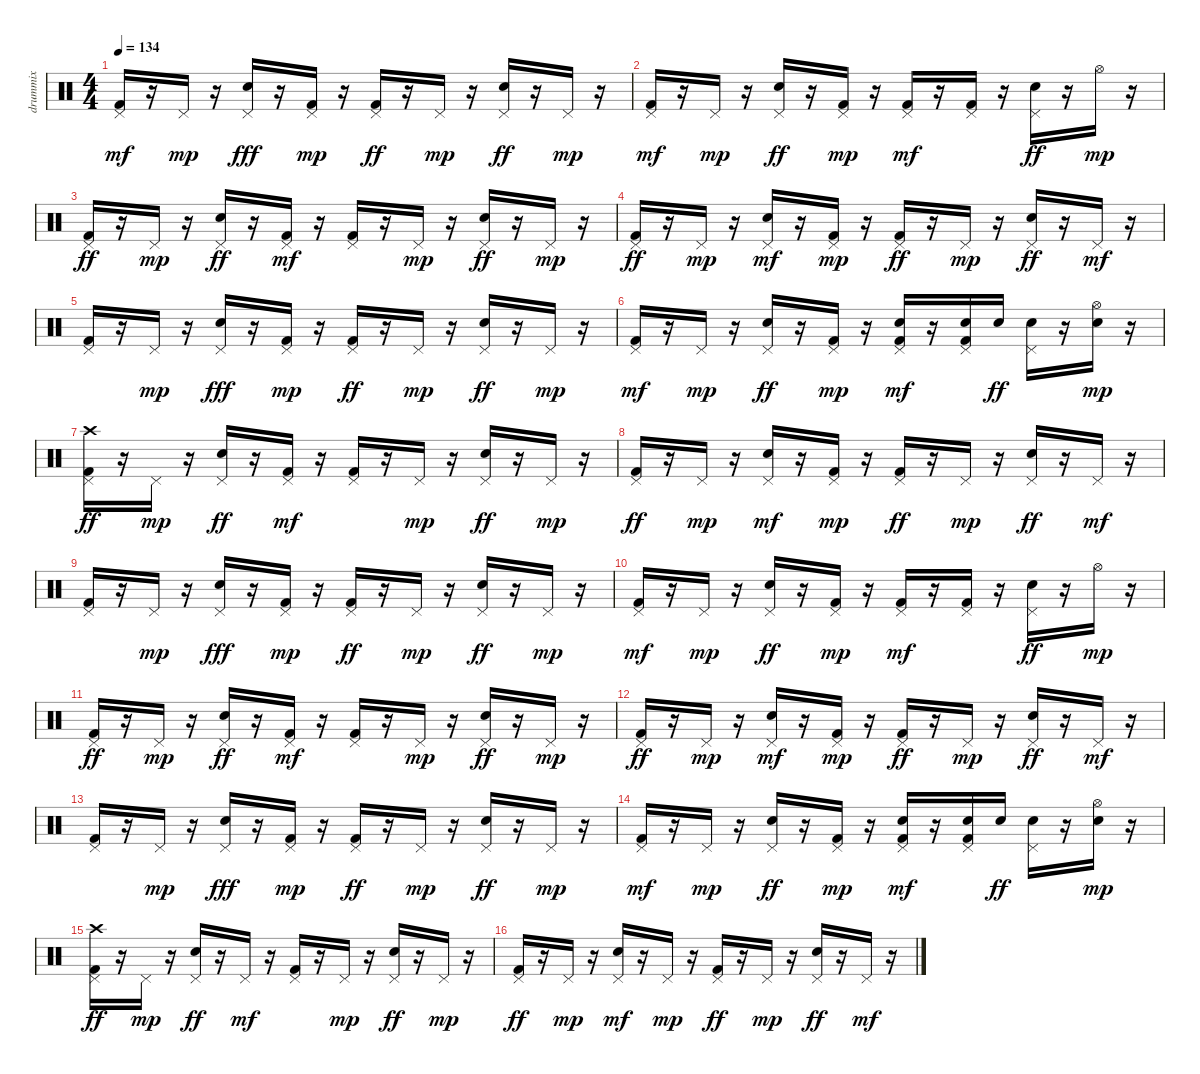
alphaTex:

\track ("drummix" "drummix") {instrument percussion}
\staff {score}
\articulation defaults
\ts (4 4)
\tempo 134
\clef neutral
\ks c
("Kick (hit) 2" "Pedal Hi-Hat (hit)").16{dy mf} r.16 "Pedal Hi-Hat (hit)".16{dy mp} r.16 ("Snare (hit) 2" "Pedal Hi-Hat (hit)").16{dy fff} r.16 ("Kick (hit) 2" "Pedal Hi-Hat (hit)").16{dy mp} r.16 ("Kick (hit) 2" "Pedal Hi-Hat (hit)").16{dy ff} r.16 "Pedal Hi-Hat (hit)".16{dy mp} r.16 ("Snare (hit) 2" "Pedal Hi-Hat (hit)").16{dy ff} r.16 "Pedal Hi-Hat (hit)".16{dy mp} r.16 |
("Kick (hit) 2" "Pedal Hi-Hat (hit)").16{dy mf} r.16 "Pedal Hi-Hat (hit)".16{dy mp} r.16 ("Snare (hit) 2" "Pedal Hi-Hat (hit)").16{dy ff} r.16 ("Kick (hit) 2" "Pedal Hi-Hat (hit)").16{dy mp} r.16 ("Kick (hit) 2" "Pedal Hi-Hat (hit)").16{dy mf} r.16 ("Kick (hit) 2" "Pedal Hi-Hat (hit)").16 r.16 ("Snare (hit) 2" "Pedal Hi-Hat (hit)").16{dy ff} r.16 "Hi-Hat (open)".16{dy mp} r.16 |
("Kick (hit) 2" "Pedal Hi-Hat (hit)").16{dy ff} r.16 "Pedal Hi-Hat (hit)".16{dy mp} r.16 ("Snare (hit) 2" "Pedal Hi-Hat (hit)").16{dy ff} r.16 ("Kick (hit) 2" "Pedal Hi-Hat (hit)").16{dy mf} r.16 ("Kick (hit) 2" "Pedal Hi-Hat (hit)").16 r.16 "Pedal Hi-Hat (hit)".16{dy mp} r.16 ("Snare (hit) 2" "Pedal Hi-Hat (hit)").16{dy ff} r.16 "Pedal Hi-Hat (hit)".16{dy mp} r.16 |
("Kick (hit) 2" "Pedal Hi-Hat (hit)").16{dy ff} r.16 "Pedal Hi-Hat (hit)".16{dy mp} r.16 ("Snare (hit) 2" "Pedal Hi-Hat (hit)").16{dy mf} r.16 ("Kick (hit) 2" "Pedal Hi-Hat (hit)").16{dy mp} r.16 ("Kick (hit) 2" "Pedal Hi-Hat (hit)").16{dy ff} r.16 "Pedal Hi-Hat (hit)".16{dy mp} r.16 ("Snare (hit) 2" "Pedal Hi-Hat (hit)").16{dy ff} r.16 "Pedal Hi-Hat (hit)".16{dy mf} r.16 |
("Kick (hit) 2" "Pedal Hi-Hat (hit)").16 r.16 "Pedal Hi-Hat (hit)".16{dy mp} r.16 ("Snare (hit) 2" "Pedal Hi-Hat (hit)").16{dy fff} r.16 ("Kick (hit) 2" "Pedal Hi-Hat (hit)").16{dy mp} r.16 ("Kick (hit) 2" "Pedal Hi-Hat (hit)").16{dy ff} r.16 "Pedal Hi-Hat (hit)".16{dy mp} r.16 ("Snare (hit) 2" "Pedal Hi-Hat (hit)").16{dy ff} r.16 "Pedal Hi-Hat (hit)".16{dy mp} r.16 |
("Kick (hit) 2" "Pedal Hi-Hat (hit)").16{dy mf} r.16 "Pedal Hi-Hat (hit)".16{dy mp} r.16 ("Snare (hit) 2" "Pedal Hi-Hat (hit)").16{dy ff} r.16 ("Kick (hit) 2" "Pedal Hi-Hat (hit)").16{dy mp} r.16 ("Kick (hit) 2" "Snare (hit) 2" "Pedal Hi-Hat (hit)").16{dy mf} r.16 ("Kick (hit) 2" "Snare (hit) 2" "Pedal Hi-Hat (hit)").16 "Snare (hit) 2".16{dy ff} ("Snare (hit) 2" "Pedal Hi-Hat (hit)").16 r.16 ("Snare (hit) 2" "Hi-Hat (open)").16{dy mp} r.16 |
("Kick (hit) 2" "Pedal Hi-Hat (hit)" "Crash high (hit)").16{dy ff} r.16 "Pedal Hi-Hat (hit)".16{dy mp} r.16 ("Snare (hit) 2" "Pedal Hi-Hat (hit)").16{dy ff} r.16 ("Kick (hit) 2" "Pedal Hi-Hat (hit)").16{dy mf} r.16 ("Kick (hit) 2" "Pedal Hi-Hat (hit)").16 r.16 "Pedal Hi-Hat (hit)".16{dy mp} r.16 ("Snare (hit) 2" "Pedal Hi-Hat (hit)").16{dy ff} r.16 "Pedal Hi-Hat (hit)".16{dy mp} r.16 |
("Kick (hit) 2" "Pedal Hi-Hat (hit)").16{dy ff} r.16 "Pedal Hi-Hat (hit)".16{dy mp} r.16 ("Snare (hit) 2" "Pedal Hi-Hat (hit)").16{dy mf} r.16 ("Kick (hit) 2" "Pedal Hi-Hat (hit)").16{dy mp} r.16 ("Kick (hit) 2" "Pedal Hi-Hat (hit)").16{dy ff} r.16 "Pedal Hi-Hat (hit)".16{dy mp} r.16 ("Snare (hit) 2" "Pedal Hi-Hat (hit)").16{dy ff} r.16 "Pedal Hi-Hat (hit)".16{dy mf} r.16 |
("Kick (hit) 2" "Pedal Hi-Hat (hit)").16 r.16 "Pedal Hi-Hat (hit)".16{dy mp} r.16 ("Snare (hit) 2" "Pedal Hi-Hat (hit)").16{dy fff} r.16 ("Kick (hit) 2" "Pedal Hi-Hat (hit)").16{dy mp} r.16 ("Kick (hit) 2" "Pedal Hi-Hat (hit)").16{dy ff} r.16 "Pedal Hi-Hat (hit)".16{dy mp} r.16 ("Snare (hit) 2" "Pedal Hi-Hat (hit)").16{dy ff} r.16 "Pedal Hi-Hat (hit)".16{dy mp} r.16 |
("Kick (hit) 2" "Pedal Hi-Hat (hit)").16{dy mf} r.16 "Pedal Hi-Hat (hit)".16{dy mp} r.16 ("Snare (hit) 2" "Pedal Hi-Hat (hit)").16{dy ff} r.16 ("Kick (hit) 2" "Pedal Hi-Hat (hit)").16{dy mp} r.16 ("Kick (hit) 2" "Pedal Hi-Hat (hit)").16{dy mf} r.16 ("Kick (hit) 2" "Pedal Hi-Hat (hit)").16 r.16 ("Snare (hit) 2" "Pedal Hi-Hat (hit)").16{dy ff} r.16 "Hi-Hat (open)".16{dy mp} r.16 |
("Kick (hit) 2" "Pedal Hi-Hat (hit)").16{dy ff} r.16 "Pedal Hi-Hat (hit)".16{dy mp} r.16 ("Snare (hit) 2" "Pedal Hi-Hat (hit)").16{dy ff} r.16 ("Kick (hit) 2" "Pedal Hi-Hat (hit)").16{dy mf} r.16 ("Kick (hit) 2" "Pedal Hi-Hat (hit)").16 r.16 "Pedal Hi-Hat (hit)".16{dy mp} r.16 ("Snare (hit) 2" "Pedal Hi-Hat (hit)").16{dy ff} r.16 "Pedal Hi-Hat (hit)".16{dy mp} r.16 |
("Kick (hit) 2" "Pedal Hi-Hat (hit)").16{dy ff} r.16 "Pedal Hi-Hat (hit)".16{dy mp} r.16 ("Snare (hit) 2" "Pedal Hi-Hat (hit)").16{dy mf} r.16 ("Kick (hit) 2" "Pedal Hi-Hat (hit)").16{dy mp} r.16 ("Kick (hit) 2" "Pedal Hi-Hat (hit)").16{dy ff} r.16 "Pedal Hi-Hat (hit)".16{dy mp} r.16 ("Snare (hit) 2" "Pedal Hi-Hat (hit)").16{dy ff} r.16 "Pedal Hi-Hat (hit)".16{dy mf} r.16 |
("Kick (hit) 2" "Pedal Hi-Hat (hit)").16 r.16 "Pedal Hi-Hat (hit)".16{dy mp} r.16 ("Snare (hit) 2" "Pedal Hi-Hat (hit)").16{dy fff} r.16 ("Kick (hit) 2" "Pedal Hi-Hat (hit)").16{dy mp} r.16 ("Kick (hit) 2" "Pedal Hi-Hat (hit)").16{dy ff} r.16 "Pedal Hi-Hat (hit)".16{dy mp} r.16 ("Snare (hit) 2" "Pedal Hi-Hat (hit)").16{dy ff} r.16 "Pedal Hi-Hat (hit)".16{dy mp} r.16 |
("Kick (hit) 2" "Pedal Hi-Hat (hit)").16{dy mf} r.16 "Pedal Hi-Hat (hit)".16{dy mp} r.16 ("Snare (hit) 2" "Pedal Hi-Hat (hit)").16{dy ff} r.16 ("Kick (hit) 2" "Pedal Hi-Hat (hit)").16{dy mp} r.16 ("Kick (hit) 2" "Snare (hit) 2" "Pedal Hi-Hat (hit)").16{dy mf} r.16 ("Kick (hit) 2" "Snare (hit) 2" "Pedal Hi-Hat (hit)").16 "Snare (hit) 2".16{dy ff} ("Snare (hit) 2" "Pedal Hi-Hat (hit)").16 r.16 ("Snare (hit) 2" "Hi-Hat (open)").16{dy mp} r.16 |
("Kick (hit) 2" "Pedal Hi-Hat (hit)" "Crash high (hit)").16{dy ff} r.16 "Pedal Hi-Hat (hit)".16{dy mp} r.16 ("Snare (hit) 2" "Pedal Hi-Hat (hit)").16{dy ff} r.16 "Pedal Hi-Hat (hit)".16{dy mf} r.16 ("Kick (hit) 2" "Pedal Hi-Hat (hit)").16 r.16 "Pedal Hi-Hat (hit)".16{dy mp} r.16 ("Snare (hit) 2" "Pedal Hi-Hat (hit)").16{dy ff} r.16 "Pedal Hi-Hat (hit)".16{dy mp} r.16 |
("Kick (hit) 2" "Pedal Hi-Hat (hit)").16{dy ff} r.16 "Pedal Hi-Hat (hit)".16{dy mp} r.16 ("Snare (hit) 2" "Pedal Hi-Hat (hit)").16{dy mf} r.16 "Pedal Hi-Hat (hit)".16{dy mp} r.16 ("Kick (hit) 2" "Pedal Hi-Hat (hit)").16{dy ff} r.16 "Pedal Hi-Hat (hit)".16{dy mp} r.16 ("Snare (hit) 2" "Pedal Hi-Hat (hit)").16{dy ff} r.16 "Pedal Hi-Hat (hit)".16{dy mf} r.16
